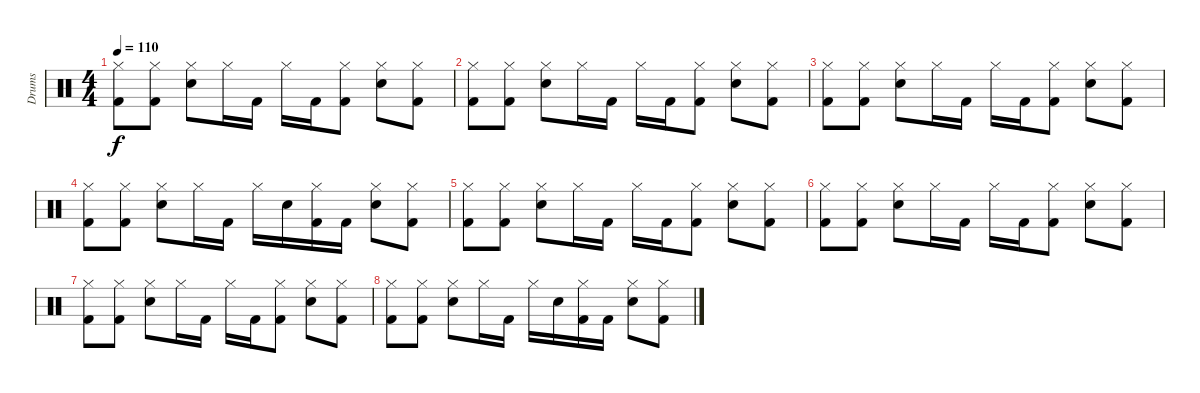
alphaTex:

\track ("Drums" "Drums") {instrument percussion}
\staff {score}
\articulation defaults
\ts (4 4)
\tempo 110
\clef neutral
\ks c
("Hi-Hat (closed)" "Kick (hit) 2").8{dy f} ("Hi-Hat (closed)" "Kick (hit) 2").8 ("Hi-Hat (closed)" "Electric Snare (hit)").8 "Hi-Hat (closed)".16 "Kick (hit) 2".16 "Hi-Hat (closed)".16 "Kick (hit) 2".16 ("Hi-Hat (closed)" "Kick (hit) 2").8 ("Hi-Hat (closed)" "Electric Snare (hit)").8 ("Hi-Hat (closed)" "Kick (hit) 2").8 |
("Hi-Hat (closed)" "Kick (hit) 2").8 ("Hi-Hat (closed)" "Kick (hit) 2").8 ("Hi-Hat (closed)" "Electric Snare (hit)").8 "Hi-Hat (closed)".16 "Kick (hit) 2".16 "Hi-Hat (closed)".16 "Kick (hit) 2".16 ("Hi-Hat (closed)" "Kick (hit) 2").8 ("Hi-Hat (closed)" "Electric Snare (hit)").8 ("Hi-Hat (closed)" "Kick (hit) 2").8 |
("Hi-Hat (closed)" "Kick (hit) 2").8{volume 4} ("Hi-Hat (closed)" "Kick (hit) 2").8 ("Hi-Hat (closed)" "Electric Snare (hit)").8 "Hi-Hat (closed)".16 "Kick (hit) 2".16 "Hi-Hat (closed)".16 "Kick (hit) 2".16 ("Hi-Hat (closed)" "Kick (hit) 2").8 ("Hi-Hat (closed)" "Electric Snare (hit)").8 ("Hi-Hat (closed)" "Kick (hit) 2").8 |
("Hi-Hat (closed)" "Kick (hit) 2").8 ("Hi-Hat (closed)" "Kick (hit) 2").8 ("Hi-Hat (closed)" "Electric Snare (hit)").8 "Hi-Hat (closed)".16 "Kick (hit) 2".16 "Hi-Hat (closed)".16 "Electric Snare (hit)".16 ("Hi-Hat (closed)" "Kick (hit) 2").16 "Kick (hit) 2".16 ("Hi-Hat (closed)" "Electric Snare (hit)").8 ("Hi-Hat (closed)" "Kick (hit) 2").8 |
("Hi-Hat (closed)" "Kick (hit) 2").8 ("Hi-Hat (closed)" "Kick (hit) 2").8 ("Hi-Hat (closed)" "Electric Snare (hit)").8 "Hi-Hat (closed)".16 "Kick (hit) 2".16 "Hi-Hat (closed)".16 "Kick (hit) 2".16 ("Hi-Hat (closed)" "Kick (hit) 2").8 ("Hi-Hat (closed)" "Electric Snare (hit)").8 ("Hi-Hat (closed)" "Kick (hit) 2").8 |
("Hi-Hat (closed)" "Kick (hit) 2").8 ("Hi-Hat (closed)" "Kick (hit) 2").8 ("Hi-Hat (closed)" "Electric Snare (hit)").8 "Hi-Hat (closed)".16 "Kick (hit) 2".16 "Hi-Hat (closed)".16 "Kick (hit) 2".16 ("Hi-Hat (closed)" "Kick (hit) 2").8 ("Hi-Hat (closed)" "Electric Snare (hit)").8 ("Hi-Hat (closed)" "Kick (hit) 2").8 |
("Hi-Hat (closed)" "Kick (hit) 2").8{volume 0} ("Hi-Hat (closed)" "Kick (hit) 2").8 ("Hi-Hat (closed)" "Electric Snare (hit)").8 "Hi-Hat (closed)".16 "Kick (hit) 2".16 "Hi-Hat (closed)".16 "Kick (hit) 2".16 ("Hi-Hat (closed)" "Kick (hit) 2").8 ("Hi-Hat (closed)" "Electric Snare (hit)").8 ("Hi-Hat (closed)" "Kick (hit) 2").8 |
("Hi-Hat (closed)" "Kick (hit) 2").8 ("Hi-Hat (closed)" "Kick (hit) 2").8 ("Hi-Hat (closed)" "Electric Snare (hit)").8 "Hi-Hat (closed)".16 "Kick (hit) 2".16 "Hi-Hat (closed)".16 "Electric Snare (hit)".16 ("Hi-Hat (closed)" "Kick (hit) 2").16 "Kick (hit) 2".16 ("Hi-Hat (closed)" "Electric Snare (hit)").8 ("Hi-Hat (closed)" "Kick (hit) 2").8
